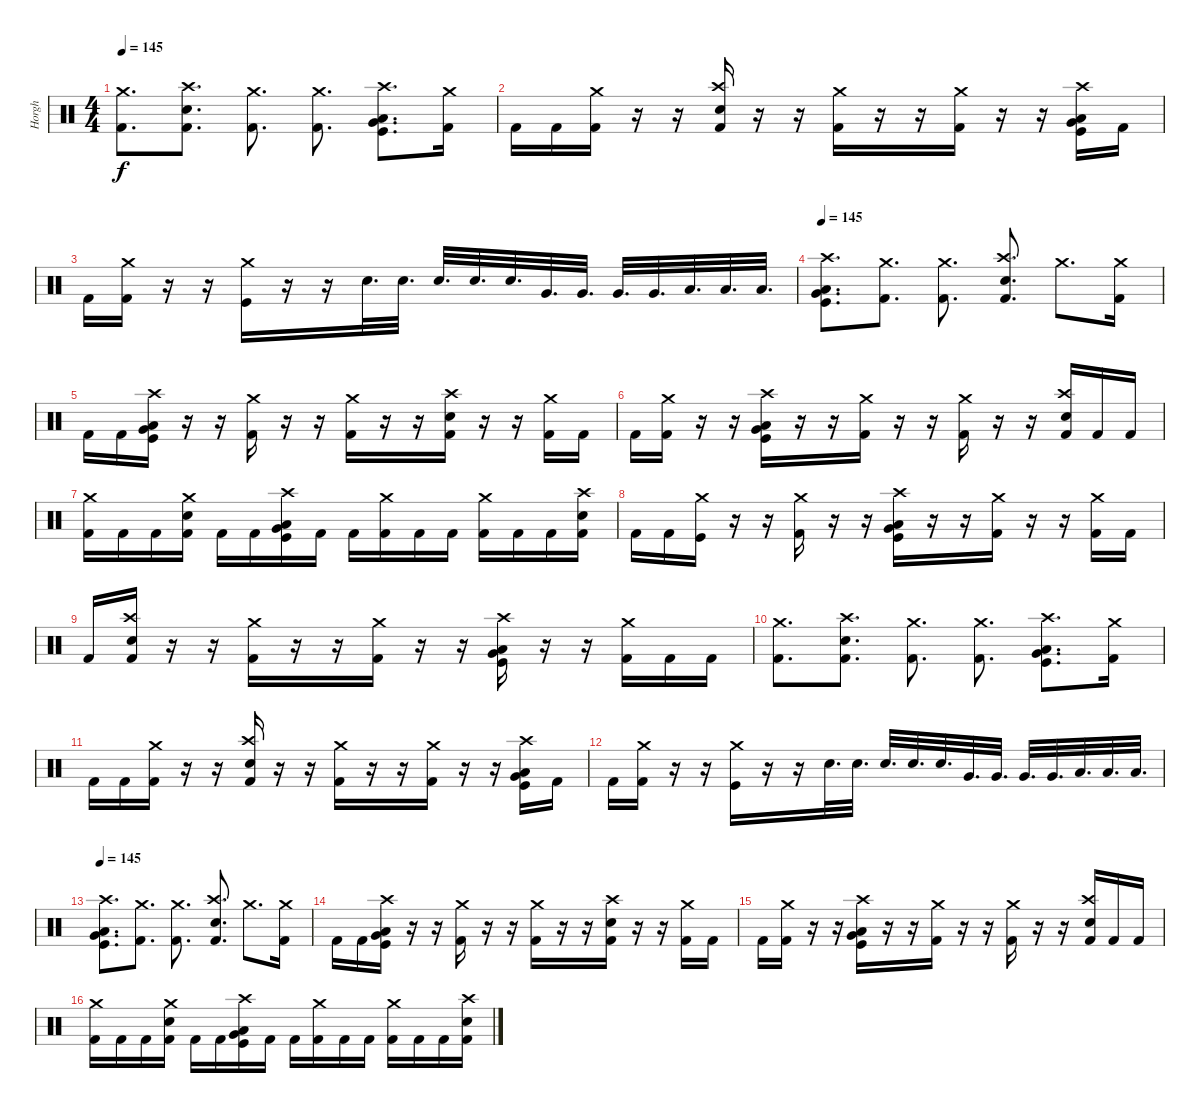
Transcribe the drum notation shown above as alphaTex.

\track ("Horgh" "Horgh") {instrument percussion}
\staff {score}
\articulation defaults
\ts (4 4)
\tempo 145
\clef neutral
\ks c
("Crash medium (hit)" "Kick (hit) 2").8{d dy f} ("Crash high (hit)" "Snare (hit) 2" "Kick (hit) 2").8{d} ("Crash medium (hit)" "Kick (hit) 2").8{d} ("Crash medium (hit)" "Kick (hit) 2").8{d} ("Crash high (hit)" "Low Tom (hit)" "Very Low Tom (hit)" "Kick (hit)").8{d} ("Crash medium (hit)" "Kick (hit) 2").16 |
"Kick (hit) 2".16 "Kick (hit) 2".16 ("Crash medium (hit)" "Kick (hit) 2").16 r.16 r.16 ("Crash high (hit)" "Snare (hit) 2" "Kick (hit) 2").16 r.16 r.16 ("Crash medium (hit)" "Kick (hit) 2").16 r.16 r.16 ("Crash medium (hit)" "Kick (hit) 2").16 r.16 r.16 ("Crash high (hit)" "Low Tom (hit)" "Very Low Tom (hit)" "Kick (hit)").16 "Kick (hit) 2".16 |
"Kick (hit) 2".16 ("Crash medium (hit)" "Kick (hit) 2").16 r.16 r.16 ("Crash medium (hit)" "Kick (hit)").16 r.16 r.16 "Snare (hit) 2".32{d} "Snare (hit) 2".32{d} "Snare (hit) 2".32{d} "Snare (hit) 2".32{d} "Snare (hit) 2".32{d} "Very Low Tom (hit)".32{d} "Very Low Tom (hit)".32{d} "Very Low Tom (hit)".32{d} "Very Low Tom (hit)".32{d} "Low Tom (hit)".32{d} "Low Tom (hit)".32{d} "Low Tom (hit)".32{d} |
\tempo 145
("Crash high (hit)" "Kick (hit)" "Very Low Tom (hit)" "Low Tom (hit)").8{d} ("Crash medium (hit)" "Kick (hit) 2").8{d} ("Crash medium (hit)" "Kick (hit) 2").8{d} ("Crash high (hit)" "Snare (hit) 2" "Kick (hit) 2").8{d} "Crash medium (hit)".8{d} ("Crash medium (hit)" "Kick (hit) 2").16 |
"Kick (hit) 2".16 "Kick (hit) 2".16 ("Crash high (hit)" "Very Low Tom (hit)" "Low Tom (hit)" "Kick (hit)").16 r.16 r.16 ("Crash medium (hit)" "Kick (hit) 2").16 r.16 r.16 ("Crash medium (hit)" "Kick (hit) 2").16 r.16 r.16 ("Crash high (hit)" "Snare (hit) 2" "Kick (hit) 2").16 r.16 r.16 ("Crash medium (hit)" "Kick (hit) 2").16 "Kick (hit) 2".16 |
"Kick (hit) 2".16 ("Crash medium (hit)" "Kick (hit) 2").16 r.16 r.16 ("Crash high (hit)" "Low Tom (hit)" "Very Low Tom (hit)" "Kick (hit)").16 r.16 r.16 ("Crash medium (hit)" "Kick (hit) 2").16 r.16 r.16 ("Crash medium (hit)" "Kick (hit) 2").16 r.16 r.16 ("Crash high (hit)" "Snare (hit) 2" "Kick (hit) 2").16 "Kick (hit) 2".16 "Kick (hit) 2".16 |
("Crash medium (hit)" "Kick (hit) 2").16 "Kick (hit) 2".16 "Kick (hit) 2".16 ("Crash medium (hit)" "Snare (hit) 2" "Kick (hit) 2").16 "Kick (hit) 2".16 "Kick (hit) 2".16 ("Crash high (hit)" "Kick (hit)" "Very Low Tom (hit)" "Low Tom (hit)").16 "Kick (hit) 2".16 "Kick (hit) 2".16 ("Crash medium (hit)" "Kick (hit) 2").16 "Kick (hit) 2".16 "Kick (hit) 2".16 ("Crash medium (hit)" "Kick (hit) 2").16 "Kick (hit) 2".16 "Kick (hit) 2".16 ("Crash high (hit)" "Snare (hit) 2" "Kick (hit) 2").16 |
"Kick (hit) 2".16 "Kick (hit) 2".16 ("Crash medium (hit)" "Kick (hit)").16 r.16 r.16 ("Crash medium (hit)" "Kick (hit) 2").16 r.16 r.16 ("Crash high (hit)" "Low Tom (hit)" "Very Low Tom (hit)" "Kick (hit)").16 r.16 r.16 ("Crash medium (hit)" "Kick (hit) 2").16 r.16 r.16 ("Crash medium (hit)" "Kick (hit) 2").16 "Kick (hit) 2".16 |
"Kick (hit) 2".16 ("Crash high (hit)" "Snare (hit) 2" "Kick (hit) 2").16 r.16 r.16 ("Crash medium (hit)" "Kick (hit) 2").16 r.16 r.16 ("Crash medium (hit)" "Kick (hit) 2").16 r.16 r.16 ("Crash high (hit)" "Low Tom (hit)" "Very Low Tom (hit)" "Kick (hit)").16 r.16 r.16 ("Crash medium (hit)" "Kick (hit) 2").16 "Kick (hit) 2".16 "Kick (hit) 2".16 |
("Crash medium (hit)" "Kick (hit) 2").8{d} ("Crash high (hit)" "Snare (hit) 2" "Kick (hit) 2").8{d} ("Crash medium (hit)" "Kick (hit) 2").8{d} ("Crash medium (hit)" "Kick (hit) 2").8{d} ("Crash high (hit)" "Low Tom (hit)" "Very Low Tom (hit)" "Kick (hit)").8{d} ("Crash medium (hit)" "Kick (hit) 2").16 |
"Kick (hit) 2".16 "Kick (hit) 2".16 ("Crash medium (hit)" "Kick (hit) 2").16 r.16 r.16 ("Crash high (hit)" "Snare (hit) 2" "Kick (hit) 2").16 r.16 r.16 ("Crash medium (hit)" "Kick (hit) 2").16 r.16 r.16 ("Crash medium (hit)" "Kick (hit) 2").16 r.16 r.16 ("Crash high (hit)" "Low Tom (hit)" "Very Low Tom (hit)" "Kick (hit)").16 "Kick (hit) 2".16 |
"Kick (hit) 2".16 ("Crash medium (hit)" "Kick (hit) 2").16 r.16 r.16 ("Crash medium (hit)" "Kick (hit)").16 r.16 r.16 "Snare (hit) 2".32{d} "Snare (hit) 2".32{d} "Snare (hit) 2".32{d} "Snare (hit) 2".32{d} "Snare (hit) 2".32{d} "Very Low Tom (hit)".32{d} "Very Low Tom (hit)".32{d} "Very Low Tom (hit)".32{d} "Very Low Tom (hit)".32{d} "Low Tom (hit)".32{d} "Low Tom (hit)".32{d} "Low Tom (hit)".32{d} |
\tempo 145
("Crash high (hit)" "Kick (hit)" "Very Low Tom (hit)" "Low Tom (hit)").8{d} ("Crash medium (hit)" "Kick (hit) 2").8{d} ("Crash medium (hit)" "Kick (hit) 2").8{d} ("Crash high (hit)" "Snare (hit) 2" "Kick (hit) 2").8{d} "Crash medium (hit)".8{d} ("Crash medium (hit)" "Kick (hit) 2").16 |
"Kick (hit) 2".16 "Kick (hit) 2".16 ("Crash high (hit)" "Very Low Tom (hit)" "Low Tom (hit)" "Kick (hit)").16 r.16 r.16 ("Crash medium (hit)" "Kick (hit) 2").16 r.16 r.16 ("Crash medium (hit)" "Kick (hit) 2").16 r.16 r.16 ("Crash high (hit)" "Snare (hit) 2" "Kick (hit) 2").16 r.16 r.16 ("Crash medium (hit)" "Kick (hit) 2").16 "Kick (hit) 2".16 |
"Kick (hit) 2".16 ("Crash medium (hit)" "Kick (hit) 2").16 r.16 r.16 ("Crash high (hit)" "Low Tom (hit)" "Very Low Tom (hit)" "Kick (hit)").16 r.16 r.16 ("Crash medium (hit)" "Kick (hit) 2").16 r.16 r.16 ("Crash medium (hit)" "Kick (hit) 2").16 r.16 r.16 ("Crash high (hit)" "Snare (hit) 2" "Kick (hit) 2").16 "Kick (hit) 2".16 "Kick (hit) 2".16 |
("Crash medium (hit)" "Kick (hit) 2").16 "Kick (hit) 2".16 "Kick (hit) 2".16 ("Crash medium (hit)" "Snare (hit) 2" "Kick (hit) 2").16 "Kick (hit) 2".16 "Kick (hit) 2".16 ("Crash high (hit)" "Kick (hit)" "Very Low Tom (hit)" "Low Tom (hit)").16 "Kick (hit) 2".16 "Kick (hit) 2".16 ("Crash medium (hit)" "Kick (hit) 2").16 "Kick (hit) 2".16 "Kick (hit) 2".16 ("Crash medium (hit)" "Kick (hit) 2").16 "Kick (hit) 2".16 "Kick (hit) 2".16 ("Crash high (hit)" "Snare (hit) 2" "Kick (hit) 2").16
